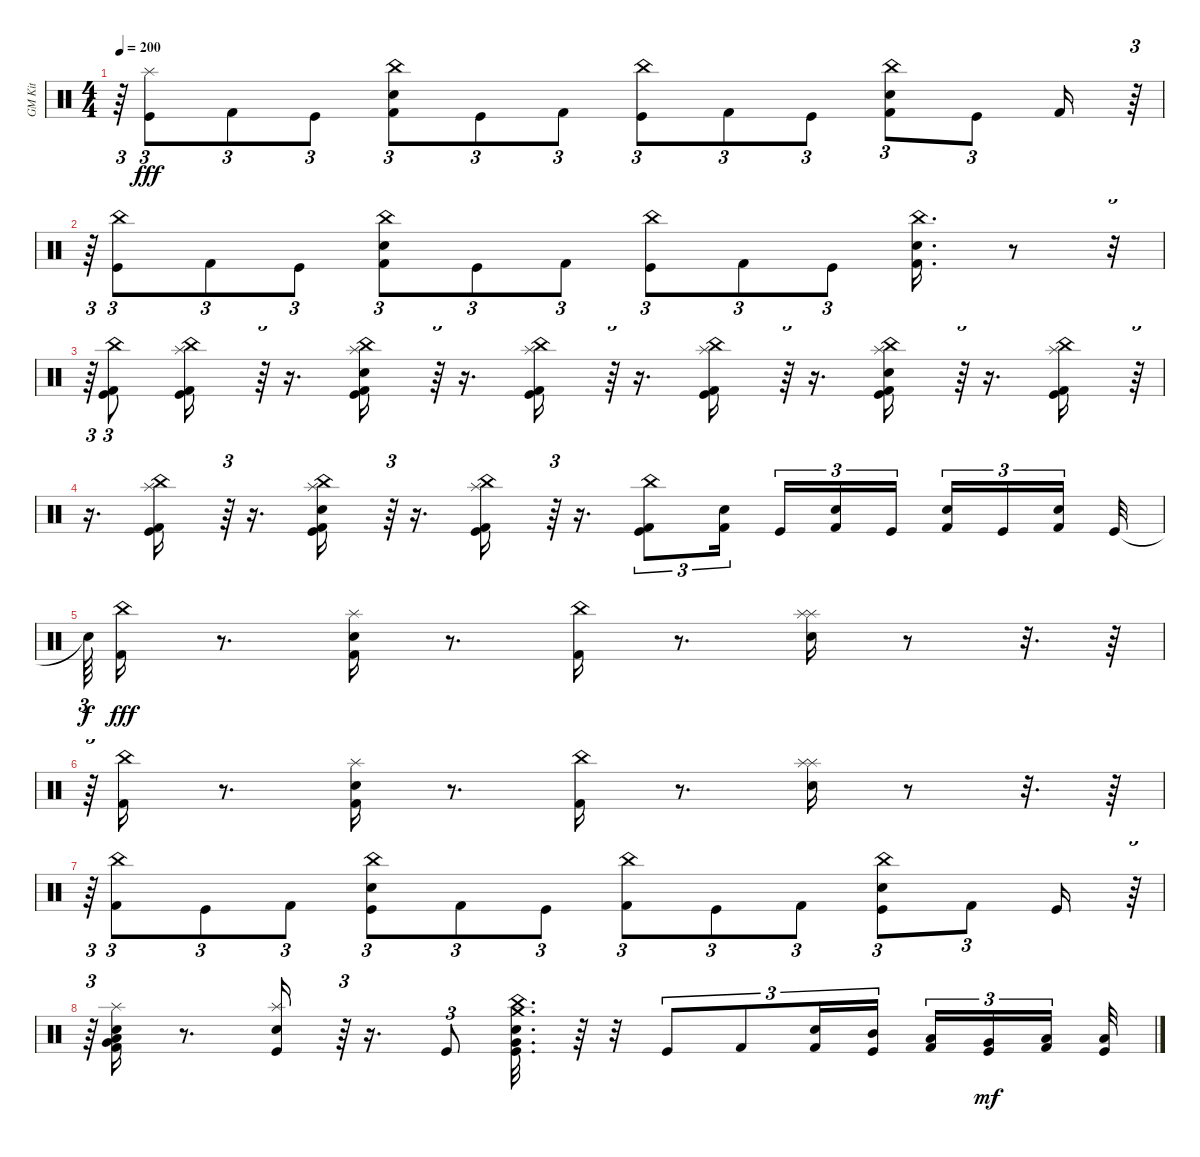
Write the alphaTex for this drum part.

\track ("GM Kit" "GM Kit") {instrument percussion}
\staff {score}
\articulation defaults
\ts (4 4)
\tempo 200
\clef neutral
\ks c
r.64{tu (3 2) dy fff} ("Kick (hit)" "Splash (hit)").8{tu (3 2)} "Kick (hit) 2".8{tu (3 2)} "Kick (hit)".8{tu (3 2)} ("Kick (hit) 2" "Snare (hit) 2" "China (hit)").8{tu (3 2)} "Kick (hit)".8{tu (3 2)} "Kick (hit) 2".8{tu (3 2)} ("Kick (hit)" "China (hit)").8{tu (3 2)} "Kick (hit) 2".8{tu (3 2)} "Kick (hit)".8{tu (3 2)} ("Kick (hit) 2" "Snare (hit) 2" "China (hit)").8{tu (3 2)} "Kick (hit)".8{tu (3 2)} "Kick (hit) 2".16 r.64{tu (3 2)} |
r.64{tu (3 2)} ("Kick (hit)" "China (hit)").8{tu (3 2)} "Kick (hit) 2".8{tu (3 2)} "Kick (hit)".8{tu (3 2)} ("Kick (hit) 2" "Snare (hit) 2" "China (hit)").8{tu (3 2)} "Kick (hit)".8{tu (3 2)} "Kick (hit) 2".8{tu (3 2)} ("Kick (hit)" "China (hit)").8{tu (3 2)} "Kick (hit) 2".8{tu (3 2)} "Kick (hit)".8{tu (3 2)} ("Kick (hit) 2" "Snare (hit) 2" "China (hit)").16{d} r.8 r.32{tu (3 2)} |
r.64{tu (3 2)} ("Kick (hit)" "Kick (hit) 2" "China (hit)").8{tu (3 2)} ("Kick (hit)" "Kick (hit) 2" "China (hit)" "Splash (hit)").16 r.64{tu (3 2)} r.16{d} ("Kick (hit)" "Kick (hit) 2" "Snare (hit) 2" "China (hit)" "Splash (hit)").16 r.64{tu (3 2)} r.16{d} ("Kick (hit)" "Kick (hit) 2" "China (hit)" "Splash (hit)").16 r.64{tu (3 2)} r.16{d} ("Kick (hit)" "Kick (hit) 2" "China (hit)" "Splash (hit)").16 r.64{tu (3 2)} r.16{d} ("Kick (hit)" "Kick (hit) 2" "Snare (hit) 2" "China (hit)" "Splash (hit)").16 r.64{tu (3 2)} r.16{d} ("Kick (hit)" "Kick (hit) 2" "China (hit)" "Splash (hit)").16 r.64{tu (3 2)} |
r.16{d} ("Kick (hit)" "Kick (hit) 2" "China (hit)" "Splash (hit)").16 r.64{tu (3 2)} r.16{d} ("Kick (hit)" "Kick (hit) 2" "Snare (hit) 2" "China (hit)" "Splash (hit)").16 r.64{tu (3 2)} r.16{d} ("Kick (hit)" "Kick (hit) 2" "China (hit)" "Splash (hit)").16 r.64{tu (3 2)} r.16{d} ("Kick (hit)" "Kick (hit) 2" "China (hit)").8{tu (3 2)} ("Kick (hit) 2" "Snare (hit) 2").16{tu (3 2)} "Kick (hit)".16{tu (3 2)} ("Kick (hit) 2" "Snare (hit) 2").16{tu (3 2)} "Kick (hit)".16{tu (3 2) beam splitsecondary} ("Kick (hit) 2" "Snare (hit) 2").16{tu (3 2)} "Kick (hit)".16{tu (3 2)} ("Kick (hit) 2" "Snare (hit) 2").16{tu (3 2) beam splitsecondary} "Kick (hit)".32 |
"Snare (hit)"{t}.64{tu (3 2) dy f} ("Kick (hit) 2" "China (hit)").16{dy fff} r.8{d} ("Kick (hit) 2" "Snare (hit) 2" "Splash (hit)").16 r.8{d} ("Kick (hit) 2" "China (hit)").16 r.8{d} ("Snare (hit) 2" "Splash (hit)" "Splash (hit)").16 r.8 r.32{d} r.64 |
r.64{tu (3 2)} ("Kick (hit) 2" "China (hit)").16 r.8{d} ("Kick (hit) 2" "Snare (hit) 2" "Splash (hit)").16 r.8{d} ("Kick (hit) 2" "China (hit)").16 r.8{d} ("Snare (hit) 2" "Splash (hit)" "Splash (hit)").16 r.8 r.32{d} r.64 |
r.64{tu (3 2)} ("Kick (hit) 2" "China (hit)").8{tu (3 2)} "Kick (hit)".8{tu (3 2)} "Kick (hit) 2".8{tu (3 2)} ("Kick (hit)" "Snare (hit) 2" "China (hit)").8{tu (3 2)} "Kick (hit) 2".8{tu (3 2)} "Kick (hit)".8{tu (3 2)} ("Kick (hit) 2" "China (hit)").8{tu (3 2)} "Kick (hit)".8{tu (3 2)} "Kick (hit) 2".8{tu (3 2)} ("Kick (hit)" "Snare (hit) 2" "China (hit)").8{tu (3 2)} "Kick (hit) 2".8{tu (3 2)} "Kick (hit)".16 r.64{tu (3 2)} |
r.64{tu (3 2)} ("Kick (hit) 2" "Snare (hit) 2" "Very Low Tom (hit)" "Low Tom (hit)" "Splash (hit)").16 r.8{d} ("Kick (hit)" "Snare (hit) 2" "Splash (hit)").16 r.64{tu (3 2)} r.16{d} "Kick (hit)".8{tu (3 2)} ("Kick (hit)" "Snare (hit) 2" "Very Low Tom (hit)" "China (hit)" "Crash medium (hit)").32{d} r.64 r.32 "Kick (hit)".8{tu (3 2)} "Kick (hit) 2".8{tu (3 2)} ("Kick (hit) 2" "Snare (hit) 2").16{tu (3 2)} ("Kick (hit)" "Mid Tom (hit)").16{tu (3 2) beam splitsecondary} ("Kick (hit) 2" "Low Tom (hit)").16{tu (3 2)} ("Kick (hit)" "Very Low Tom (hit)").16{tu (3 2) dy mf} ("Kick (hit) 2" "Low Floor Tom (hit)").16{tu (3 2) beam splitsecondary} ("Kick (hit)" "Low Floor Tom (hit)").32
